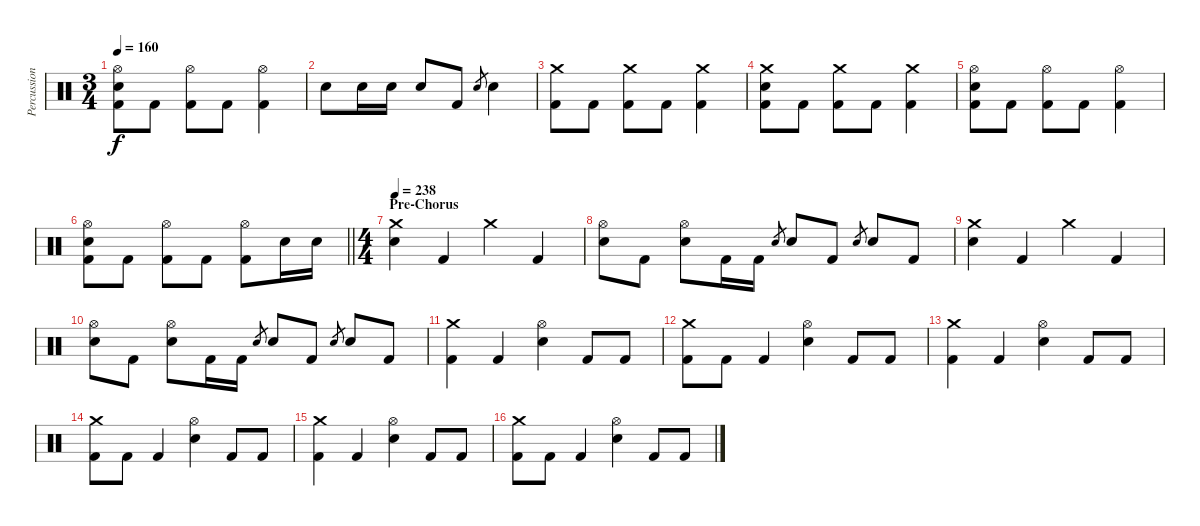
\track ("Percussion" "Percussion") {instrument percussion}
\staff {score}
\articulation defaults
\ts (3 4)
\tempo 160
\clef neutral
\ks c
("Hi-Hat (open)" "Electric Snare (hit)" "Kick (hit) 2").8{dy f} "Kick (hit) 2".8 ("Hi-Hat (open)" "Kick (hit) 2").8 "Kick (hit) 2".8 ("Hi-Hat (open)" "Kick (hit) 2").4 |
"Electric Snare (hit)".8 "Electric Snare (hit)".16 "Electric Snare (hit)".16 "Electric Snare (hit)".8 "Kick (hit) 2".8 "Electric Snare (hit)".8{gr} "Electric Snare (hit)".4 |
("Crash medium (hit)" "Kick (hit) 2").8 "Kick (hit) 2".8 ("Crash medium (hit)" "Kick (hit) 2").8 "Kick (hit) 2".8 ("Crash medium (hit)" "Kick (hit) 2").4 |
("Crash medium (hit)" "Electric Snare (hit)" "Kick (hit) 2").8 "Kick (hit) 2".8 ("Crash medium (hit)" "Kick (hit) 2").8 "Kick (hit) 2".8 ("Crash medium (hit)" "Kick (hit) 2").4 |
("Hi-Hat (open)" "Electric Snare (hit)" "Kick (hit) 2").8 "Kick (hit) 2".8 ("Hi-Hat (open)" "Kick (hit) 2").8 "Kick (hit) 2".8 ("Hi-Hat (open)" "Kick (hit) 2").4 |
\barLineRight lightlight
("Hi-Hat (open)" "Electric Snare (hit)" "Kick (hit) 2").8 "Kick (hit) 2".8 ("Hi-Hat (open)" "Kick (hit) 2").8 "Kick (hit) 2".8 ("Hi-Hat (open)" "Kick (hit) 2").8 "Electric Snare (hit)".16 "Electric Snare (hit)".16 |
\ts (4 4)
\section ("" "Pre-Chorus")
\tempo 238
("Crash medium (hit)" "Electric Snare (hit)").4 "Kick (hit) 2".4 "Crash medium (hit)".4 "Kick (hit) 2".4 |
("Hi-Hat (open)" "Electric Snare (hit)").8 "Kick (hit) 2".8 ("Hi-Hat (open)" "Electric Snare (hit)").8 "Kick (hit) 2".16 "Kick (hit) 2".16 "Electric Snare (hit)".8{gr} "Electric Snare (hit)".8 "Kick (hit) 2".8 "Electric Snare (hit)".8{gr} "Electric Snare (hit)".8 "Kick (hit) 2".8 |
("Crash medium (hit)" "Electric Snare (hit)").4 "Kick (hit) 2".4 "Crash medium (hit)".4 "Kick (hit) 2".4 |
("Hi-Hat (open)" "Electric Snare (hit)").8 "Kick (hit) 2".8 ("Hi-Hat (open)" "Electric Snare (hit)").8 "Kick (hit) 2".16 "Kick (hit) 2".16 "Electric Snare (hit)".8{gr} "Electric Snare (hit)".8 "Kick (hit) 2".8 "Electric Snare (hit)".8{gr} "Electric Snare (hit)".8 "Kick (hit) 2".8 |
("Crash medium (hit)" "Kick (hit) 2").4 "Kick (hit) 2".4 ("Hi-Hat (open)" "Electric Snare (hit)").4 "Kick (hit) 2".8 "Kick (hit) 2".8 |
("Crash medium (hit)" "Kick (hit) 2").8 "Kick (hit) 2".8 "Kick (hit) 2".4 ("Hi-Hat (open)" "Electric Snare (hit)").4 "Kick (hit) 2".8 "Kick (hit) 2".8 |
("Crash medium (hit)" "Kick (hit) 2").4 "Kick (hit) 2".4 ("Hi-Hat (open)" "Electric Snare (hit)").4 "Kick (hit) 2".8 "Kick (hit) 2".8 |
("Crash medium (hit)" "Kick (hit) 2").8 "Kick (hit) 2".8 "Kick (hit) 2".4 ("Hi-Hat (open)" "Electric Snare (hit)").4 "Kick (hit) 2".8 "Kick (hit) 2".8 |
("Crash medium (hit)" "Kick (hit) 2").4 "Kick (hit) 2".4 ("Hi-Hat (open)" "Electric Snare (hit)").4 "Kick (hit) 2".8 "Kick (hit) 2".8 |
("Crash medium (hit)" "Kick (hit) 2").8 "Kick (hit) 2".8 "Kick (hit) 2".4 ("Hi-Hat (open)" "Electric Snare (hit)").4 "Kick (hit) 2".8 "Kick (hit) 2".8
